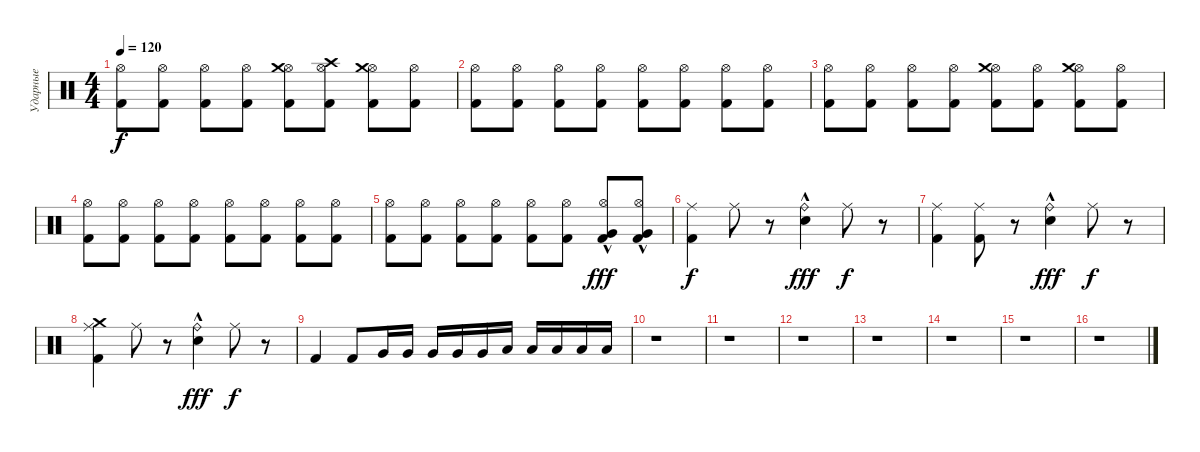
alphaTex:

\track ("Ударные" "Ударные") {instrument percussion}
\staff {score}
\articulation defaults
\ts (4 4)
\tempo 120
\clef neutral
\ks c
("Kick (hit) 2" "Hi-Hat (open)").8{dy f} ("Kick (hit) 2" "Hi-Hat (open)").8 ("Kick (hit) 2" "Hi-Hat (open)").8 ("Kick (hit) 2" "Hi-Hat (open)").8 ("Kick (hit) 2" "Hi-Hat (open)" "Crash medium (hit)").8 ("Kick (hit) 2" "Hi-Hat (open)" "Crash high (hit)").8 ("Kick (hit) 2" "Hi-Hat (open)" "Crash medium (hit)").8 ("Kick (hit) 2" "Hi-Hat (open)").8 |
("Kick (hit) 2" "Hi-Hat (open)").8 ("Kick (hit) 2" "Hi-Hat (open)").8 ("Kick (hit) 2" "Hi-Hat (open)").8 ("Kick (hit) 2" "Hi-Hat (open)").8 ("Kick (hit) 2" "Hi-Hat (open)").8 ("Kick (hit) 2" "Hi-Hat (open)").8 ("Kick (hit) 2" "Hi-Hat (open)").8 ("Kick (hit) 2" "Hi-Hat (open)").8 |
("Kick (hit) 2" "Hi-Hat (open)").8 ("Kick (hit) 2" "Hi-Hat (open)").8 ("Kick (hit) 2" "Hi-Hat (open)").8 ("Kick (hit) 2" "Hi-Hat (open)").8 ("Kick (hit) 2" "Hi-Hat (open)" "Crash medium (hit)").8 ("Kick (hit) 2" "Hi-Hat (open)").8 ("Kick (hit) 2" "Hi-Hat (open)" "Crash medium (hit)").8 ("Kick (hit) 2" "Hi-Hat (open)").8 |
("Kick (hit) 2" "Hi-Hat (open)").8 ("Kick (hit) 2" "Hi-Hat (open)").8 ("Kick (hit) 2" "Hi-Hat (open)").8 ("Kick (hit) 2" "Hi-Hat (open)").8 ("Kick (hit) 2" "Hi-Hat (open)").8 ("Kick (hit) 2" "Hi-Hat (open)").8 ("Kick (hit) 2" "Hi-Hat (open)").8 ("Kick (hit) 2" "Hi-Hat (open)").8 |
("Kick (hit) 2" "Hi-Hat (open)").8 ("Kick (hit) 2" "Hi-Hat (open)").8 ("Kick (hit) 2" "Hi-Hat (open)").8 ("Kick (hit) 2" "Hi-Hat (open)").8 ("Kick (hit) 2" "Hi-Hat (open)").8 ("Kick (hit) 2" "Hi-Hat (open)").8 ("Very Low Tom (hit)"{hac} "Kick (hit) 2" "Hi-Hat (open)").8{dy fff} ("Very Low Tom (hit)"{hac} "Kick (hit) 2" "Hi-Hat (open)").8 |
("Kick (hit) 2" "Ride (middle)").4{dy f} "Ride (middle)".8 r.8 ("Electric Snare (hit)"{hac} "Ride (bell)").4{dy fff} "Ride (middle)".8{dy f} r.8 |
("Kick (hit) 2" "Ride (middle)").4 ("Kick (hit) 2" "Ride (middle)").8 r.8 ("Electric Snare (hit)"{hac} "Ride (bell)").4{dy fff} "Ride (middle)".8{dy f} r.8 |
("Kick (hit) 2" "Crash medium (hit)" "Ride (middle)").4 "Ride (middle)".8 r.8 ("Electric Snare (hit)"{hac} "Ride (bell)").4{dy fff} "Ride (middle)".8{dy f} r.8 |
"Kick (hit) 2".4 "Kick (hit) 2".8 "Very Low Tom (hit)".16 "Very Low Tom (hit)".16 "Very Low Tom (hit)".16 "Very Low Tom (hit)".16 "Very Low Tom (hit)".16 "Low Floor Tom (hit)".16 "Low Floor Tom (hit)".16 "Low Floor Tom (hit)".16 "Low Floor Tom (hit)".16 "Low Floor Tom (hit)".16 |
r.1 |
r.1 |
r.1 |
r.1 |
r.1 |
r.1 |
r.1
